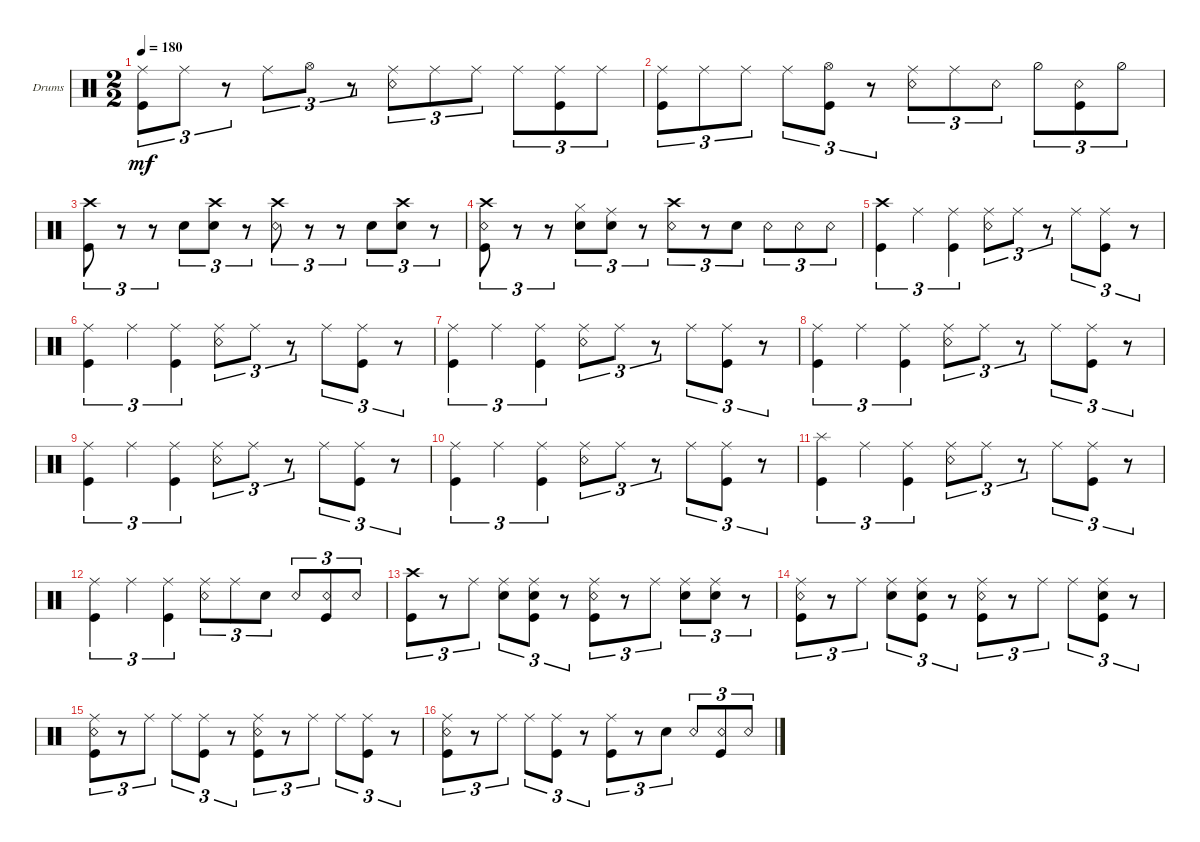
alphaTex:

\defaultSystemsLayout 4
\bracketExtendMode groupsimilarinstruments
\firstSystemTrackNameOrientation horizontal
\otherSystemsTrackNameOrientation horizontal
\track ("Drumkit" "Drums") {instrument percussion}
\staff {score}
\articulation defaults
\ts (2 2)
\tempo 180
\clef neutral
\ks c
("Ride (middle)" "Kick (hit)").8{tu (3 2) dy mf} "Ride (middle)".8{tu (3 2)} r.8{tu (3 2)} "Ride (middle)".8{tu (3 2)} "Hi-Hat (open)".8{tu (3 2)} r.8{tu (3 2)} ("Ride (middle)" "Snare (rim shot)").8{tu (3 2)} "Ride (middle)".8{tu (3 2)} "Ride (middle)".8{tu (3 2)} "Ride (middle)".8{tu (3 2)} ("Kick (hit)" "Ride (middle)").8{tu (3 2)} "Ride (middle)".8{tu (3 2)} |
("Ride (middle)" "Kick (hit)").8{tu (3 2)} "Ride (middle)".8{tu (3 2)} "Ride (middle)".8{tu (3 2)} "Ride (middle)".8{tu (3 2)} ("Hi-Hat (open)" "Kick (hit)").8{tu (3 2)} r.8{tu (3 2)} ("Ride (middle)" "Snare (rim shot)").8{tu (3 2)} "Ride (middle)".8{tu (3 2)} "Snare (rim shot)".8{tu (3 2)} "Hi-Hat (half)".8{tu (3 2)} ("Kick (hit)" "Snare (rim shot)").8{tu (3 2)} "Hi-Hat (half)".8{tu (3 2)} |
("Kick (hit)" "Crash high (hit)").8{tu (3 2)} r.8{tu (3 2)} r.8{tu (3 2)} "Snare (hit) 2".8{tu (3 2)} ("Snare (hit) 2" "Crash high (hit)").8{tu (3 2)} r.8{tu (3 2)} ("Snare (rim shot)" "Crash high (hit)").8{tu (3 2)} r.8{tu (3 2)} r.8{tu (3 2)} "Snare (hit) 2".8{tu (3 2)} ("Snare (hit) 2" "Crash high (hit)").8{tu (3 2)} r.8{tu (3 2)} |
("Kick (hit)" "Snare (rim shot)" "Crash high (hit)").8{tu (3 2)} r.8{tu (3 2)} r.8{tu (3 2)} ("Snare (hit) 2" "Hi-Hat (closed)").8{tu (3 2)} ("Snare (hit) 2" "Ride (middle)").8{tu (3 2)} r.8{tu (3 2)} ("Snare (rim shot)" "Crash high (hit)").8{tu (3 2)} r.8{tu (3 2)} "Snare (hit) 2".8{tu (3 2)} "Snare (rim shot)".8{tu (3 2)} "Snare (rim shot)".8{tu (3 2)} "Snare (rim shot)".8{tu (3 2)} |
("Kick (hit)" "Crash high (hit)").4{tu (3 2)} "Ride (middle)".4{tu (3 2)} ("Kick (hit)" "Ride (middle)").4{tu (3 2)} ("Snare (rim shot)" "Ride (middle)").8{tu (3 2)} "Ride (middle)".8{tu (3 2)} r.8{tu (3 2)} "Ride (middle)".8{tu (3 2)} ("Kick (hit)" "Ride (middle)").8{tu (3 2)} r.8{tu (3 2)} |
("Kick (hit)" "Ride (middle)").4{tu (3 2)} "Ride (middle)".4{tu (3 2)} ("Kick (hit)" "Ride (middle)").4{tu (3 2)} ("Snare (rim shot)" "Ride (middle)").8{tu (3 2)} "Ride (middle)".8{tu (3 2)} r.8{tu (3 2)} "Ride (middle)".8{tu (3 2)} ("Kick (hit)" "Ride (middle)").8{tu (3 2)} r.8{tu (3 2)} |
("Kick (hit)" "Ride (middle)").4{tu (3 2)} "Ride (middle)".4{tu (3 2)} ("Kick (hit)" "Ride (middle)").4{tu (3 2)} ("Snare (rim shot)" "Ride (middle)").8{tu (3 2)} "Ride (middle)".8{tu (3 2)} r.8{tu (3 2)} "Ride (middle)".8{tu (3 2)} ("Kick (hit)" "Ride (middle)").8{tu (3 2)} r.8{tu (3 2)} |
("Kick (hit)" "Ride (middle)").4{tu (3 2)} "Ride (middle)".4{tu (3 2)} ("Kick (hit)" "Ride (middle)").4{tu (3 2)} ("Snare (rim shot)" "Ride (middle)").8{tu (3 2)} "Ride (middle)".8{tu (3 2)} r.8{tu (3 2)} "Ride (middle)".8{tu (3 2)} ("Kick (hit)" "Ride (middle)").8{tu (3 2)} r.8{tu (3 2)} |
("Kick (hit)" "Ride (middle)").4{tu (3 2)} "Ride (middle)".4{tu (3 2)} ("Kick (hit)" "Ride (middle)").4{tu (3 2)} ("Snare (rim shot)" "Ride (middle)").8{tu (3 2)} "Ride (middle)".8{tu (3 2)} r.8{tu (3 2)} "Ride (middle)".8{tu (3 2)} ("Kick (hit)" "Ride (middle)").8{tu (3 2)} r.8{tu (3 2)} |
("Kick (hit)" "Ride (middle)").4{tu (3 2)} "Ride (middle)".4{tu (3 2)} ("Kick (hit)" "Ride (middle)").4{tu (3 2)} ("Snare (rim shot)" "Ride (middle)").8{tu (3 2)} "Ride (middle)".8{tu (3 2)} r.8{tu (3 2)} "Ride (middle)".8{tu (3 2)} ("Kick (hit)" "Ride (middle)").8{tu (3 2)} r.8{tu (3 2)} |
("Kick (hit)" "Splash (hit)").4{tu (3 2)} "Ride (middle)".4{tu (3 2)} ("Kick (hit)" "Ride (middle)").4{tu (3 2)} ("Snare (rim shot)" "Ride (middle)").8{tu (3 2)} "Ride (middle)".8{tu (3 2)} r.8{tu (3 2)} "Ride (middle)".8{tu (3 2)} ("Kick (hit)" "Ride (middle)").8{tu (3 2)} r.8{tu (3 2)} |
("Kick (hit)" "Ride (middle)").4{tu (3 2)} "Ride (middle)".4{tu (3 2)} ("Kick (hit)" "Ride (middle)").4{tu (3 2)} ("Snare (rim shot)" "Ride (middle)").8{tu (3 2)} "Ride (middle)".8{tu (3 2)} "Snare (hit) 2".8{tu (3 2)} "Snare (rim shot)".8{tu (3 2)} ("Kick (hit)" "Snare (rim shot)").8{tu (3 2)} "Snare (rim shot)".8{tu (3 2)} |
("Kick (hit)" "Crash high (hit)").8{tu (3 2)} r.8{tu (3 2)} "Ride (middle)".8{tu (3 2)} ("Snare (hit) 2" "Ride (middle)").8{tu (3 2)} ("Kick (hit)" "Snare (hit) 2" "Ride (middle)").8{tu (3 2)} r.8{tu (3 2)} ("Kick (hit)" "Ride (middle)" "Snare (rim shot)").8{tu (3 2)} r.8{tu (3 2)} "Ride (middle)".8{tu (3 2)} ("Snare (hit) 2" "Ride (middle)").8{tu (3 2)} ("Snare (hit) 2" "Ride (middle)").8{tu (3 2)} r.8{tu (3 2)} |
("Kick (hit)" "Ride (middle)" "Snare (rim shot)").8{tu (3 2)} r.8{tu (3 2)} "Ride (middle)".8{tu (3 2)} ("Snare (hit) 2" "Ride (middle)").8{tu (3 2)} ("Kick (hit)" "Snare (hit) 2" "Ride (middle)").8{tu (3 2)} r.8{tu (3 2)} ("Kick (hit)" "Ride (middle)" "Snare (rim shot)").8{tu (3 2)} r.8{tu (3 2)} "Ride (middle)".8{tu (3 2)} "Ride (middle)".8{tu (3 2)} ("Ride (middle)" "Kick (hit)" "Snare (hit) 2").8{tu (3 2)} r.8{tu (3 2)} |
("Kick (hit)" "Ride (middle)" "Snare (rim shot)").8{tu (3 2)} r.8{tu (3 2)} "Ride (middle)".8{tu (3 2)} "Ride (middle)".8{tu (3 2)} ("Kick (hit)" "Ride (middle)").8{tu (3 2)} r.8{tu (3 2)} ("Kick (hit)" "Ride (middle)" "Snare (rim shot)").8{tu (3 2)} r.8{tu (3 2)} "Ride (middle)".8{tu (3 2)} "Ride (middle)".8{tu (3 2)} ("Kick (hit)" "Ride (middle)").8{tu (3 2)} r.8{tu (3 2)} |
("Kick (hit)" "Ride (middle)" "Snare (rim shot)").8{tu (3 2)} r.8{tu (3 2)} "Ride (middle)".8{tu (3 2)} "Ride (middle)".8{tu (3 2)} ("Kick (hit)" "Ride (middle)").8{tu (3 2)} r.8{tu (3 2)} ("Kick (hit)" "Ride (middle)").8{tu (3 2)} r.8{tu (3 2)} "Snare (hit) 2".8{tu (3 2)} "Snare (rim shot)".8{tu (3 2)} ("Kick (hit)" "Snare (rim shot)").8{tu (3 2)} "Snare (rim shot)".8{tu (3 2)}
